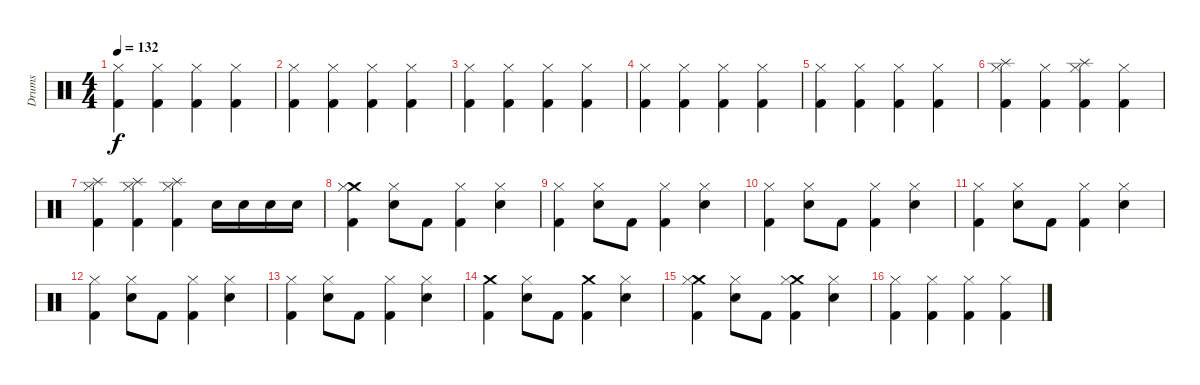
\track ("Drums" "Drums") {instrument percussion}
\staff {score}
\articulation defaults
\ts (4 4)
\tempo 132
\clef neutral
\ks c
("Kick (hit) 2" "Hi-Hat (closed)").4{dy f} ("Kick (hit) 2" "Hi-Hat (closed)").4 ("Kick (hit) 2" "Hi-Hat (closed)").4 ("Kick (hit) 2" "Hi-Hat (closed)").4 |
("Hi-Hat (closed)" "Kick (hit) 2").4 ("Hi-Hat (closed)" "Kick (hit) 2").4 ("Hi-Hat (closed)" "Kick (hit) 2").4 ("Hi-Hat (closed)" "Kick (hit) 2").4 |
("Kick (hit) 2" "Hi-Hat (closed)").4 ("Kick (hit) 2" "Hi-Hat (closed)").4 ("Kick (hit) 2" "Hi-Hat (closed)").4 ("Kick (hit) 2" "Hi-Hat (closed)").4 |
("Kick (hit) 2" "Hi-Hat (closed)").4 ("Kick (hit) 2" "Hi-Hat (closed)").4 ("Kick (hit) 2" "Hi-Hat (closed)").4 ("Kick (hit) 2" "Hi-Hat (closed)").4 |
("Hi-Hat (closed)" "Kick (hit) 2").4 ("Hi-Hat (closed)" "Kick (hit) 2").4 ("Hi-Hat (closed)" "Kick (hit) 2").4 ("Hi-Hat (closed)" "Kick (hit) 2").4 |
("Splash (hit)" "Kick (hit) 2" "Hi-Hat (closed)").4 ("Kick (hit) 2" "Hi-Hat (closed)").4 ("Splash (hit)" "Kick (hit) 2" "Hi-Hat (closed)").4 ("Kick (hit) 2" "Hi-Hat (closed)").4 |
("Splash (hit)" "Kick (hit) 2" "Hi-Hat (closed)").4 ("Splash (hit)" "Kick (hit) 2" "Hi-Hat (closed)").4 ("Splash (hit)" "Kick (hit) 2" "Hi-Hat (closed)").4 "Snare (hit) 2".16 "Snare (hit) 2".16 "Snare (hit) 2".16 "Snare (hit) 2".16 |
("Crash medium (hit)" "Hi-Hat (closed)" "Kick (hit) 2").4 ("Hi-Hat (closed)" "Snare (hit) 2").8 "Kick (hit) 2".8 ("Hi-Hat (closed)" "Kick (hit) 2").4 ("Hi-Hat (closed)" "Snare (hit) 2").4 |
("Hi-Hat (closed)" "Kick (hit) 2").4 ("Hi-Hat (closed)" "Snare (hit) 2").8 "Kick (hit) 2".8 ("Hi-Hat (closed)" "Kick (hit) 2").4 ("Hi-Hat (closed)" "Snare (hit) 2").4 |
("Hi-Hat (closed)" "Kick (hit) 2").4 ("Hi-Hat (closed)" "Snare (hit) 2").8 "Kick (hit) 2".8 ("Hi-Hat (closed)" "Kick (hit) 2").4 ("Hi-Hat (closed)" "Snare (hit) 2").4 |
("Hi-Hat (closed)" "Kick (hit) 2").4 ("Hi-Hat (closed)" "Snare (hit) 2").8 "Kick (hit) 2".8 ("Hi-Hat (closed)" "Kick (hit) 2").4 ("Hi-Hat (closed)" "Snare (hit) 2").4 |
("Hi-Hat (closed)" "Kick (hit) 2").4 ("Hi-Hat (closed)" "Snare (hit) 2").8 "Kick (hit) 2".8 ("Hi-Hat (closed)" "Kick (hit) 2").4 ("Hi-Hat (closed)" "Snare (hit) 2").4 |
("Hi-Hat (closed)" "Kick (hit) 2").4 ("Hi-Hat (closed)" "Snare (hit) 2").8 "Kick (hit) 2".8 ("Hi-Hat (closed)" "Kick (hit) 2").4 ("Hi-Hat (closed)" "Snare (hit) 2").4 |
("Crash medium (hit)" "Kick (hit) 2").4 ("Hi-Hat (closed)" "Snare (hit) 2").8 "Kick (hit) 2".8 ("Crash medium (hit)" "Kick (hit) 2").4 ("Hi-Hat (closed)" "Snare (hit) 2").4 |
("Crash medium (hit)" "Hi-Hat (closed)" "Kick (hit) 2").4 ("Hi-Hat (closed)" "Snare (hit) 2").8 "Kick (hit) 2".8 ("Crash medium (hit)" "Hi-Hat (closed)" "Kick (hit) 2").4 ("Hi-Hat (closed)" "Snare (hit) 2").4 |
("Hi-Hat (closed)" "Kick (hit) 2").4 ("Hi-Hat (closed)" "Kick (hit) 2").4 ("Hi-Hat (closed)" "Kick (hit) 2").4 ("Hi-Hat (closed)" "Kick (hit) 2").4
